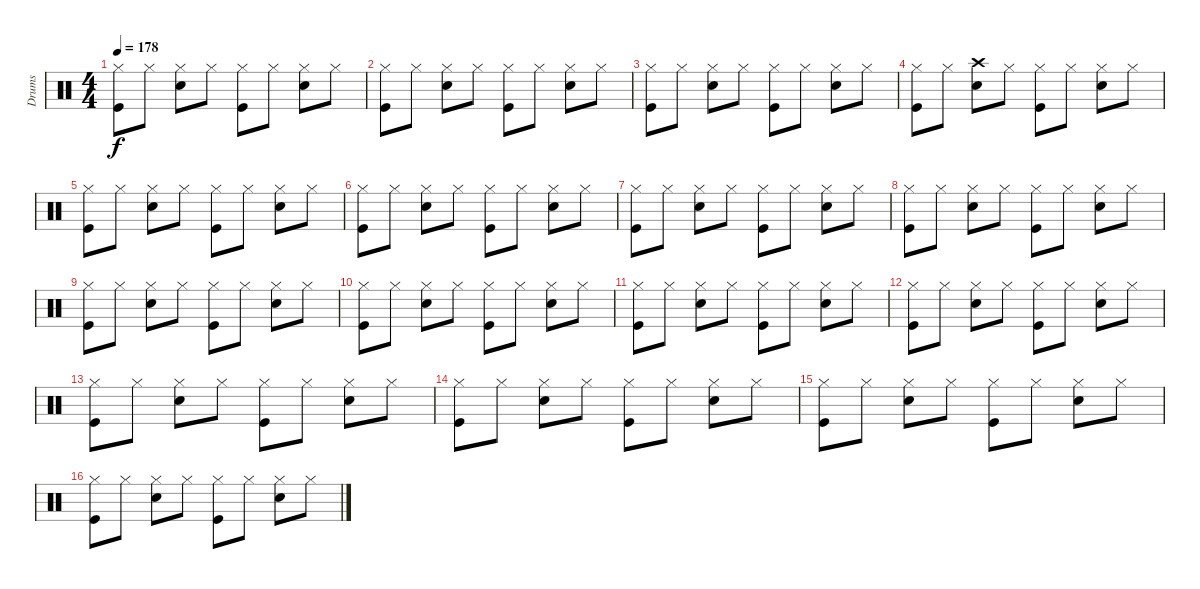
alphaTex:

\track ("Drums" "Drums") {instrument percussion}
\staff {score}
\articulation defaults
\ts (4 4)
\tempo 178
\clef neutral
\ks c
("Hi-Hat (closed)" "Kick (hit)").8{dy f} "Hi-Hat (closed)".8 ("Hi-Hat (closed)" "Electric Snare (hit)").8 "Hi-Hat (closed)".8 ("Hi-Hat (closed)" "Kick (hit)").8 "Hi-Hat (closed)".8 ("Hi-Hat (closed)" "Electric Snare (hit)").8 "Hi-Hat (closed)".8 |
("Hi-Hat (closed)" "Kick (hit)").8 "Hi-Hat (closed)".8 ("Hi-Hat (closed)" "Electric Snare (hit)").8 "Hi-Hat (closed)".8 ("Hi-Hat (closed)" "Kick (hit)").8 "Hi-Hat (closed)".8 ("Hi-Hat (closed)" "Electric Snare (hit)").8 "Hi-Hat (closed)".8 |
("Hi-Hat (closed)" "Kick (hit)").8 "Hi-Hat (closed)".8 ("Hi-Hat (closed)" "Electric Snare (hit)").8 "Hi-Hat (closed)".8 ("Hi-Hat (closed)" "Kick (hit)").8 "Hi-Hat (closed)".8 ("Hi-Hat (closed)" "Electric Snare (hit)").8 "Hi-Hat (closed)".8 |
("Hi-Hat (closed)" "Kick (hit)").8 "Hi-Hat (closed)".8 ("Crash high (hit)" "Electric Snare (hit)").8 "Hi-Hat (closed)".8 ("Hi-Hat (closed)" "Kick (hit)").8 "Hi-Hat (closed)".8 ("Hi-Hat (closed)" "Electric Snare (hit)").8 "Hi-Hat (closed)".8 |
("Hi-Hat (closed)" "Kick (hit)").8 "Hi-Hat (closed)".8 ("Hi-Hat (closed)" "Electric Snare (hit)").8 "Hi-Hat (closed)".8 ("Hi-Hat (closed)" "Kick (hit)").8 "Hi-Hat (closed)".8 ("Hi-Hat (closed)" "Electric Snare (hit)").8 "Hi-Hat (closed)".8 |
("Hi-Hat (closed)" "Kick (hit)").8 "Hi-Hat (closed)".8 ("Hi-Hat (closed)" "Electric Snare (hit)").8 "Hi-Hat (closed)".8 ("Hi-Hat (closed)" "Kick (hit)").8 "Hi-Hat (closed)".8 ("Hi-Hat (closed)" "Electric Snare (hit)").8 "Hi-Hat (closed)".8 |
("Hi-Hat (closed)" "Kick (hit)").8 "Hi-Hat (closed)".8 ("Hi-Hat (closed)" "Electric Snare (hit)").8 "Hi-Hat (closed)".8 ("Hi-Hat (closed)" "Kick (hit)").8 "Hi-Hat (closed)".8 ("Hi-Hat (closed)" "Electric Snare (hit)").8 "Hi-Hat (closed)".8 |
("Hi-Hat (closed)" "Kick (hit)").8 "Hi-Hat (closed)".8 ("Hi-Hat (closed)" "Electric Snare (hit)").8 "Hi-Hat (closed)".8 ("Hi-Hat (closed)" "Kick (hit)").8 "Hi-Hat (closed)".8 ("Hi-Hat (closed)" "Electric Snare (hit)").8 "Hi-Hat (closed)".8 |
("Hi-Hat (closed)" "Kick (hit)").8 "Hi-Hat (closed)".8 ("Hi-Hat (closed)" "Electric Snare (hit)").8 "Hi-Hat (closed)".8 ("Hi-Hat (closed)" "Kick (hit)").8 "Hi-Hat (closed)".8 ("Hi-Hat (closed)" "Electric Snare (hit)").8 "Hi-Hat (closed)".8 |
("Hi-Hat (closed)" "Kick (hit)").8 "Hi-Hat (closed)".8 ("Hi-Hat (closed)" "Electric Snare (hit)").8 "Hi-Hat (closed)".8 ("Hi-Hat (closed)" "Kick (hit)").8 "Hi-Hat (closed)".8 ("Hi-Hat (closed)" "Electric Snare (hit)").8 "Hi-Hat (closed)".8 |
("Hi-Hat (closed)" "Kick (hit)").8 "Hi-Hat (closed)".8 ("Hi-Hat (closed)" "Electric Snare (hit)").8 "Hi-Hat (closed)".8 ("Hi-Hat (closed)" "Kick (hit)").8 "Hi-Hat (closed)".8 ("Hi-Hat (closed)" "Electric Snare (hit)").8 "Hi-Hat (closed)".8 |
("Hi-Hat (closed)" "Kick (hit)").8 "Hi-Hat (closed)".8 ("Hi-Hat (closed)" "Electric Snare (hit)").8 "Hi-Hat (closed)".8 ("Hi-Hat (closed)" "Kick (hit)").8 "Hi-Hat (closed)".8 ("Hi-Hat (closed)" "Electric Snare (hit)").8 "Hi-Hat (closed)".8 |
("Hi-Hat (closed)" "Kick (hit)").8 "Hi-Hat (closed)".8 ("Hi-Hat (closed)" "Electric Snare (hit)").8 "Hi-Hat (closed)".8 ("Hi-Hat (closed)" "Kick (hit)").8 "Hi-Hat (closed)".8 ("Hi-Hat (closed)" "Electric Snare (hit)").8 "Hi-Hat (closed)".8 |
("Hi-Hat (closed)" "Kick (hit)").8 "Hi-Hat (closed)".8 ("Hi-Hat (closed)" "Electric Snare (hit)").8 "Hi-Hat (closed)".8 ("Hi-Hat (closed)" "Kick (hit)").8 "Hi-Hat (closed)".8 ("Hi-Hat (closed)" "Electric Snare (hit)").8 "Hi-Hat (closed)".8 |
("Hi-Hat (closed)" "Kick (hit)").8 "Hi-Hat (closed)".8 ("Hi-Hat (closed)" "Electric Snare (hit)").8 "Hi-Hat (closed)".8 ("Hi-Hat (closed)" "Kick (hit)").8 "Hi-Hat (closed)".8 ("Hi-Hat (closed)" "Electric Snare (hit)").8 "Hi-Hat (closed)".8 |
("Hi-Hat (closed)" "Kick (hit)").8 "Hi-Hat (closed)".8 ("Hi-Hat (closed)" "Electric Snare (hit)").8 "Hi-Hat (closed)".8 ("Hi-Hat (closed)" "Kick (hit)").8 "Hi-Hat (closed)".8 ("Hi-Hat (closed)" "Electric Snare (hit)").8 "Hi-Hat (closed)".8
